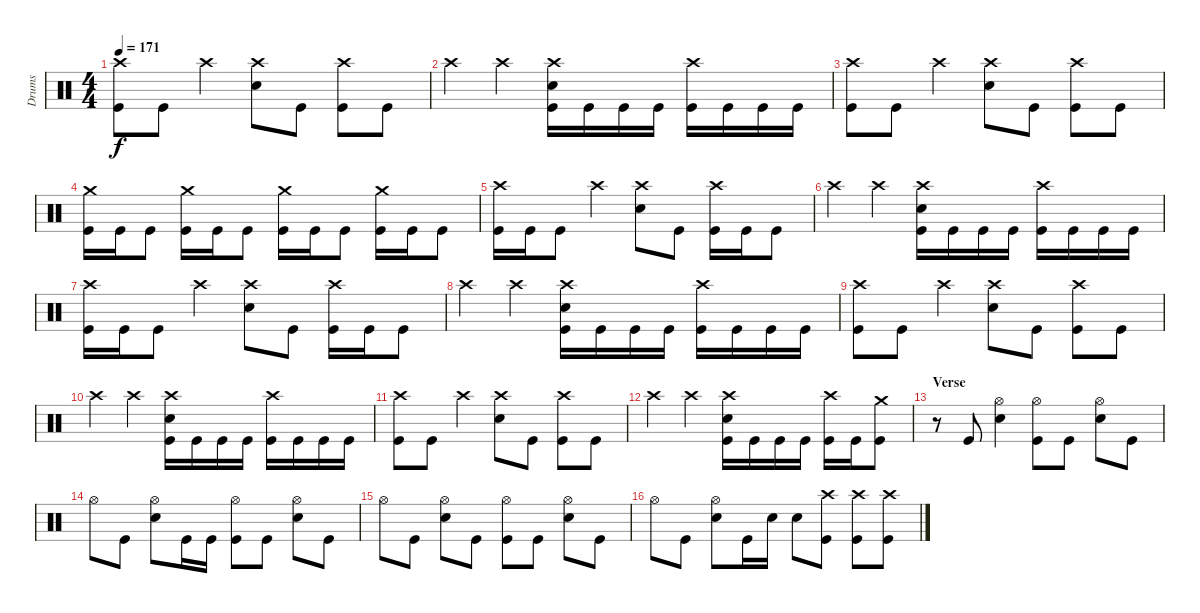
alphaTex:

\track ("Drums" "Drums") {instrument percussion}
\staff {score}
\articulation defaults
\ts (4 4)
\tempo 171
\clef neutral
\ks c
("Crash high (hit)" "Kick (hit)").8{dy f} "Kick (hit)".8 "Crash high (hit)".4 ("Crash high (hit)" "Snare (hit) 2").8 "Kick (hit)".8 ("Crash high (hit)" "Kick (hit)").8 "Kick (hit)".8 |
"Crash high (hit)".4 "Crash high (hit)".4 ("Crash high (hit)" "Snare (hit) 2" "Kick (hit)").16 "Kick (hit)".16 "Kick (hit)".16 "Kick (hit)".16 ("Crash high (hit)" "Kick (hit)").16 "Kick (hit)".16 "Kick (hit)".16 "Kick (hit)".16 |
("Crash high (hit)" "Kick (hit)").8 "Kick (hit)".8 "Crash high (hit)".4 ("Crash high (hit)" "Snare (hit) 2").8 "Kick (hit)".8 ("Crash high (hit)" "Kick (hit)").8 "Kick (hit)".8 |
("Crash medium (hit)" "Kick (hit)").16 "Kick (hit)".16 "Kick (hit)".8 ("Crash medium (hit)" "Kick (hit)").16 "Kick (hit)".16 "Kick (hit)".8 ("Crash medium (hit)" "Kick (hit)").16 "Kick (hit)".16 "Kick (hit)".8 ("Crash medium (hit)" "Kick (hit)").16 "Kick (hit)".16 "Kick (hit)".8 |
("Crash high (hit)" "Kick (hit)").16 "Kick (hit)".16 "Kick (hit)".8 "Crash high (hit)".4 ("Crash high (hit)" "Snare (hit) 2").8 "Kick (hit)".8 ("Crash high (hit)" "Kick (hit)").16 "Kick (hit)".16 "Kick (hit)".8 |
"Crash high (hit)".4 "Crash high (hit)".4 ("Crash high (hit)" "Snare (hit) 2" "Kick (hit)").16 "Kick (hit)".16 "Kick (hit)".16 "Kick (hit)".16 ("Crash high (hit)" "Kick (hit)").16 "Kick (hit)".16 "Kick (hit)".16 "Kick (hit)".16 |
("Crash high (hit)" "Kick (hit)").16 "Kick (hit)".16 "Kick (hit)".8 "Crash high (hit)".4 ("Crash high (hit)" "Snare (hit) 2").8 "Kick (hit)".8 ("Crash high (hit)" "Kick (hit)").16 "Kick (hit)".16 "Kick (hit)".8 |
"Crash high (hit)".4 "Crash high (hit)".4 ("Crash high (hit)" "Snare (hit) 2" "Kick (hit)").16 "Kick (hit)".16 "Kick (hit)".16 "Kick (hit)".16 ("Crash high (hit)" "Kick (hit)").16 "Kick (hit)".16 "Kick (hit)".16 "Kick (hit)".16 |
("Crash high (hit)" "Kick (hit)").8 "Kick (hit)".8 "Crash high (hit)".4 ("Crash high (hit)" "Snare (hit) 2").8 "Kick (hit)".8 ("Crash high (hit)" "Kick (hit)").8 "Kick (hit)".8 |
"Crash high (hit)".4 "Crash high (hit)".4 ("Crash high (hit)" "Snare (hit) 2" "Kick (hit)").16 "Kick (hit)".16 "Kick (hit)".16 "Kick (hit)".16 ("Crash high (hit)" "Kick (hit)").16 "Kick (hit)".16 "Kick (hit)".16 "Kick (hit)".16 |
("Crash high (hit)" "Kick (hit)").8 "Kick (hit)".8 "Crash high (hit)".4 ("Crash high (hit)" "Snare (hit) 2").8 "Kick (hit)".8 ("Crash high (hit)" "Kick (hit)").8 "Kick (hit)".8 |
"Crash high (hit)".4 "Crash high (hit)".4 ("Crash high (hit)" "Snare (hit) 2" "Kick (hit)").16 "Kick (hit)".16 "Kick (hit)".16 "Kick (hit)".16 ("Crash high (hit)" "Kick (hit)").16 "Kick (hit)".16 ("Crash medium (hit)" "Kick (hit)").8 |
\section ("" "Verse")
r.8 "Kick (hit)".8 ("Hi-Hat (open)" "Snare (hit) 2").4 ("Hi-Hat (open)" "Kick (hit)").8 "Kick (hit)".8 ("Hi-Hat (open)" "Snare (hit) 2").8 "Kick (hit)".8 |
"Hi-Hat (open)".8 "Kick (hit)".8 ("Hi-Hat (open)" "Snare (hit) 2").8 "Kick (hit)".16 "Kick (hit)".16 ("Hi-Hat (open)" "Kick (hit)").8 "Kick (hit)".8 ("Hi-Hat (open)" "Snare (hit) 2").8 "Kick (hit)".8 |
"Hi-Hat (open)".8 "Kick (hit)".8 ("Hi-Hat (open)" "Snare (hit) 2").8 "Kick (hit)".8 ("Hi-Hat (open)" "Kick (hit)").8 "Kick (hit)".8 ("Hi-Hat (open)" "Snare (hit) 2").8 "Kick (hit)".8 |
"Hi-Hat (open)".8 "Kick (hit)".8 ("Hi-Hat (open)" "Snare (hit) 2").8 "Kick (hit)".16 "Snare (hit) 2".16 "Snare (hit) 2".8 ("Crash high (hit)" "Kick (hit)").8 ("Crash high (hit)" "Kick (hit)").8 ("Crash high (hit)" "Kick (hit)").8
